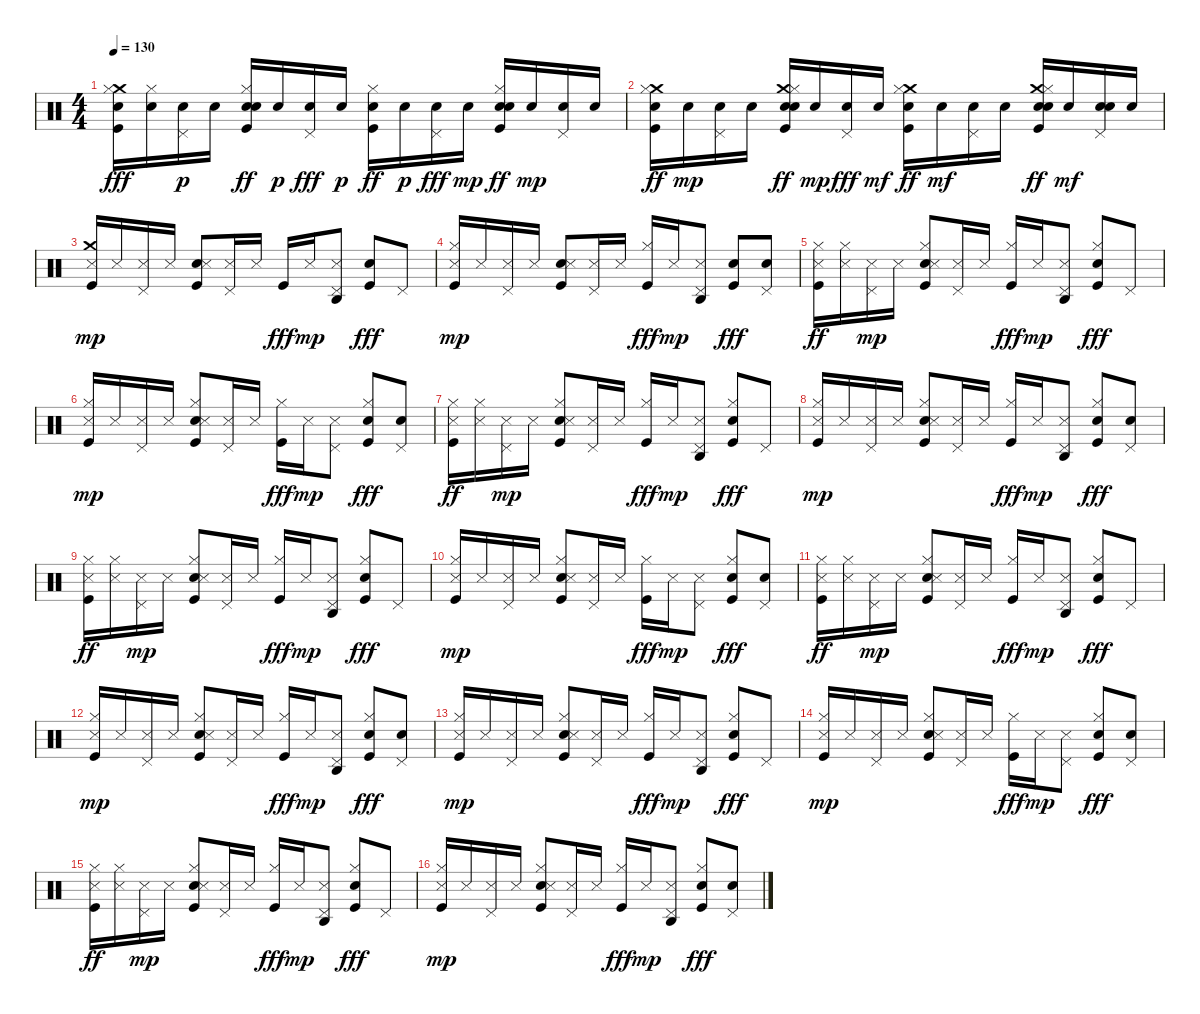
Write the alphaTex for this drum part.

\track "" {instrument percussion}
\staff {score}
\articulation defaults
\ts (4 4)
\tempo 130
\clef neutral
\ks c
("Kick (hit)" "Crash medium (hit)" "Electric Snare (hit)" "Hi-Hat (closed)").16{dy fff} ("Electric Snare (hit)" "Hi-Hat (closed)").16 ("Pedal Hi-Hat (hit)" "Electric Snare (hit)").16{dy p} "Electric Snare (hit)".16 ("Hand Clap (hit)" "Electric Snare (hit)" "Kick (hit)" "Hi-Hat (closed)").16{dy ff} "Electric Snare (hit)".16{dy p} ("Electric Snare (hit)" "Pedal Hi-Hat (hit)").16{dy fff} "Electric Snare (hit)".16{dy p} ("Electric Snare (hit)" "Kick (hit)" "Hi-Hat (closed)").16{dy ff} "Electric Snare (hit)".16{dy p} ("Electric Snare (hit)" "Pedal Hi-Hat (hit)").16{dy fff} "Electric Snare (hit)".16{dy mp} ("Hand Clap (hit)" "Kick (hit)" "Electric Snare (hit)" "Hi-Hat (closed)").16{dy ff} "Electric Snare (hit)".16{dy mp} ("Pedal Hi-Hat (hit)" "Electric Snare (hit)").16 "Electric Snare (hit)".16 |
("Crash medium (hit)" "Electric Snare (hit)" "Kick (hit)" "Hi-Hat (closed)").16{dy ff} "Electric Snare (hit)".16{dy mp} ("Pedal Hi-Hat (hit)" "Electric Snare (hit)").16 "Electric Snare (hit)".16 ("Hand Clap (hit)" "Electric Snare (hit)" "Crash medium (hit)" "Kick (hit)" "Hi-Hat (closed)").16{dy ff} "Electric Snare (hit)".16{dy mp} ("Electric Snare (hit)" "Pedal Hi-Hat (hit)").16{dy fff} "Electric Snare (hit)".16{dy mf} ("Kick (hit)" "Crash medium (hit)" "Electric Snare (hit)" "Hi-Hat (closed)").16{dy ff} "Electric Snare (hit)".16{dy mf} ("Pedal Hi-Hat (hit)" "Electric Snare (hit)").16 "Electric Snare (hit)".16 ("Hand Clap (hit)" "Kick (hit)" "Electric Snare (hit)" "Crash medium (hit)" "Hi-Hat (closed)").16{dy ff} "Electric Snare (hit)".16{dy mf} ("Hand Clap (hit)" "Pedal Hi-Hat (hit)" "Electric Snare (hit)").16 "Electric Snare (hit)".16 |
("Kick (hit)" "Crash medium (hit)" "Snare (side stick) 3").16{dy mp} "Snare (side stick) 3".16 ("Pedal Hi-Hat (hit)" "Snare (side stick) 3").16 "Snare (side stick) 3".16 ("Hand Clap (hit)" "Kick (hit)" "Snare (side stick) 3").8 ("Pedal Hi-Hat (hit)" "Snare (side stick) 3").16 "Snare (side stick) 3".16 "Kick (hit)".16{dy fff} "Snare (side stick) 3".16{dy mp} ("Pedal Hi-Hat (hit)" "Agogo high (hit)" "Snare (side stick) 3").8 ("Hand Clap (hit)" "Kick (hit)").8{dy fff} "Pedal Hi-Hat (hit)".8 |
("Kick (hit)" "Snare (side stick) 3" "Hi-Hat (closed)").16{dy mp} "Snare (side stick) 3".16 ("Pedal Hi-Hat (hit)" "Snare (side stick) 3").16 "Snare (side stick) 3".16 ("Hand Clap (hit)" "Kick (hit)" "Snare (side stick) 3").8 ("Pedal Hi-Hat (hit)" "Snare (side stick) 3").16 "Snare (side stick) 3".16 ("Kick (hit)" "Hi-Hat (closed)").16{dy fff} "Snare (side stick) 3".16{dy mp} ("Agogo high (hit)" "Pedal Hi-Hat (hit)" "Snare (side stick) 3").8 ("Hand Clap (hit)" "Kick (hit)").8{dy fff} ("Hand Clap (hit)" "Pedal Hi-Hat (hit)").8 |
("Kick (hit)" "Snare (side stick) 3" "Hi-Hat (closed)").16{dy ff} ("Snare (side stick) 3" "Hi-Hat (closed)").16 ("Pedal Hi-Hat (hit)" "Snare (side stick) 3").16{dy mp} "Snare (side stick) 3".16 ("Hand Clap (hit)" "Kick (hit)" "Snare (side stick) 3" "Hi-Hat (closed)").8 ("Pedal Hi-Hat (hit)" "Snare (side stick) 3").16 "Snare (side stick) 3".16 ("Kick (hit)" "Hi-Hat (closed)").16{dy fff} "Snare (side stick) 3".16{dy mp} ("Agogo high (hit)" "Pedal Hi-Hat (hit)" "Snare (side stick) 3").8 ("Hand Clap (hit)" "Kick (hit)" "Hi-Hat (closed)").8{dy fff} "Pedal Hi-Hat (hit)".8 |
("Kick (hit)" "Snare (side stick) 3" "Hi-Hat (closed)").16{dy mp} "Snare (side stick) 3".16 ("Pedal Hi-Hat (hit)" "Snare (side stick) 3").16 "Snare (side stick) 3".16 ("Hand Clap (hit)" "Kick (hit)" "Snare (side stick) 3" "Hi-Hat (closed)").8 ("Pedal Hi-Hat (hit)" "Snare (side stick) 3").16 "Snare (side stick) 3".16 ("Kick (hit)" "Hi-Hat (closed)").16{dy fff} "Snare (side stick) 3".16{dy mp} ("Pedal Hi-Hat (hit)" "Snare (side stick) 3").8 ("Hand Clap (hit)" "Kick (hit)" "Hi-Hat (closed)").8{dy fff} ("Hand Clap (hit)" "Pedal Hi-Hat (hit)").8 |
("Kick (hit)" "Snare (side stick) 3" "Hi-Hat (closed)").16{dy ff} ("Snare (side stick) 3" "Hi-Hat (closed)").16 ("Pedal Hi-Hat (hit)" "Snare (side stick) 3").16{dy mp} "Snare (side stick) 3".16 ("Hand Clap (hit)" "Kick (hit)" "Snare (side stick) 3" "Hi-Hat (closed)").8 ("Pedal Hi-Hat (hit)" "Snare (side stick) 3").16 "Snare (side stick) 3".16 ("Kick (hit)" "Hi-Hat (closed)").16{dy fff} "Snare (side stick) 3".16{dy mp} ("Agogo high (hit)" "Pedal Hi-Hat (hit)" "Snare (side stick) 3").8 ("Hand Clap (hit)" "Kick (hit)" "Hi-Hat (closed)").8{dy fff} "Pedal Hi-Hat (hit)".8 |
("Kick (hit)" "Snare (side stick) 3" "Hi-Hat (closed)").16{dy mp} "Snare (side stick) 3".16 ("Pedal Hi-Hat (hit)" "Snare (side stick) 3").16 "Snare (side stick) 3".16 ("Hand Clap (hit)" "Kick (hit)" "Snare (side stick) 3" "Hi-Hat (closed)").8 ("Pedal Hi-Hat (hit)" "Snare (side stick) 3").16 "Snare (side stick) 3".16 ("Kick (hit)" "Hi-Hat (closed)").16{dy fff} "Snare (side stick) 3".16{dy mp} ("Pedal Hi-Hat (hit)" "Agogo high (hit)" "Snare (side stick) 3").8 ("Hand Clap (hit)" "Kick (hit)" "Hi-Hat (closed)").8{dy fff} ("Hand Clap (hit)" "Pedal Hi-Hat (hit)").8 |
("Kick (hit)" "Snare (side stick) 3" "Hi-Hat (closed)").16{dy ff} ("Snare (side stick) 3" "Hi-Hat (closed)").16 ("Pedal Hi-Hat (hit)" "Snare (side stick) 3").16{dy mp} "Snare (side stick) 3".16 ("Hand Clap (hit)" "Kick (hit)" "Snare (side stick) 3" "Hi-Hat (closed)").8 ("Pedal Hi-Hat (hit)" "Snare (side stick) 3").16 "Snare (side stick) 3".16 ("Kick (hit)" "Hi-Hat (closed)").16{dy fff} "Snare (side stick) 3".16{dy mp} ("Agogo high (hit)" "Pedal Hi-Hat (hit)" "Snare (side stick) 3").8 ("Hand Clap (hit)" "Kick (hit)" "Hi-Hat (closed)").8{dy fff} "Pedal Hi-Hat (hit)".8 |
("Kick (hit)" "Snare (side stick) 3" "Hi-Hat (closed)").16{dy mp} "Snare (side stick) 3".16 ("Pedal Hi-Hat (hit)" "Snare (side stick) 3").16 "Snare (side stick) 3".16 ("Hand Clap (hit)" "Kick (hit)" "Snare (side stick) 3" "Hi-Hat (closed)").8 ("Pedal Hi-Hat (hit)" "Snare (side stick) 3").16 "Snare (side stick) 3".16 ("Kick (hit)" "Hi-Hat (closed)").16{dy fff} "Snare (side stick) 3".16{dy mp} ("Pedal Hi-Hat (hit)" "Snare (side stick) 3").8 ("Hand Clap (hit)" "Kick (hit)" "Hi-Hat (closed)").8{dy fff} ("Hand Clap (hit)" "Pedal Hi-Hat (hit)").8 |
("Kick (hit)" "Snare (side stick) 3" "Hi-Hat (closed)").16{dy ff} ("Snare (side stick) 3" "Hi-Hat (closed)").16 ("Pedal Hi-Hat (hit)" "Snare (side stick) 3").16{dy mp} "Snare (side stick) 3".16 ("Hand Clap (hit)" "Kick (hit)" "Snare (side stick) 3" "Hi-Hat (closed)").8 ("Pedal Hi-Hat (hit)" "Snare (side stick) 3").16 "Snare (side stick) 3".16 ("Kick (hit)" "Hi-Hat (closed)").16{dy fff} "Snare (side stick) 3".16{dy mp} ("Pedal Hi-Hat (hit)" "Agogo high (hit)" "Snare (side stick) 3").8 ("Hand Clap (hit)" "Kick (hit)" "Hi-Hat (closed)").8{dy fff} "Pedal Hi-Hat (hit)".8 |
("Kick (hit)" "Snare (side stick) 3" "Hi-Hat (closed)").16{dy mp} "Snare (side stick) 3".16 ("Pedal Hi-Hat (hit)" "Snare (side stick) 3").16 "Snare (side stick) 3".16 ("Hand Clap (hit)" "Kick (hit)" "Snare (side stick) 3" "Hi-Hat (closed)").8 ("Pedal Hi-Hat (hit)" "Snare (side stick) 3").16 "Snare (side stick) 3".16 ("Kick (hit)" "Hi-Hat (closed)").16{dy fff} "Snare (side stick) 3".16{dy mp} ("Pedal Hi-Hat (hit)" "Agogo high (hit)" "Snare (side stick) 3").8 ("Hand Clap (hit)" "Kick (hit)" "Hi-Hat (closed)").8{dy fff} ("Hand Clap (hit)" "Pedal Hi-Hat (hit)").8 |
("Kick (hit)" "Snare (side stick) 3" "Hi-Hat (closed)").16{dy mp} "Snare (side stick) 3".16 ("Pedal Hi-Hat (hit)" "Snare (side stick) 3").16 "Snare (side stick) 3".16 ("Hand Clap (hit)" "Kick (hit)" "Snare (side stick) 3" "Hi-Hat (closed)").8 ("Pedal Hi-Hat (hit)" "Snare (side stick) 3").16 "Snare (side stick) 3".16 ("Kick (hit)" "Hi-Hat (closed)").16{dy fff} "Snare (side stick) 3".16{dy mp} ("Agogo high (hit)" "Pedal Hi-Hat (hit)" "Snare (side stick) 3").8 ("Hand Clap (hit)" "Kick (hit)" "Hi-Hat (closed)").8{dy fff} "Pedal Hi-Hat (hit)".8 |
("Kick (hit)" "Snare (side stick) 3" "Hi-Hat (closed)").16{dy mp} "Snare (side stick) 3".16 ("Pedal Hi-Hat (hit)" "Snare (side stick) 3").16 "Snare (side stick) 3".16 ("Hand Clap (hit)" "Kick (hit)" "Snare (side stick) 3" "Hi-Hat (closed)").8 ("Pedal Hi-Hat (hit)" "Snare (side stick) 3").16 "Snare (side stick) 3".16 ("Kick (hit)" "Hi-Hat (closed)").16{dy fff} "Snare (side stick) 3".16{dy mp} ("Pedal Hi-Hat (hit)" "Snare (side stick) 3").8 ("Hand Clap (hit)" "Kick (hit)" "Hi-Hat (closed)").8{dy fff} ("Hand Clap (hit)" "Pedal Hi-Hat (hit)").8 |
("Kick (hit)" "Snare (side stick) 3" "Hi-Hat (closed)").16{dy ff} ("Snare (side stick) 3" "Hi-Hat (closed)").16 ("Pedal Hi-Hat (hit)" "Snare (side stick) 3").16{dy mp} "Snare (side stick) 3".16 ("Hand Clap (hit)" "Kick (hit)" "Snare (side stick) 3" "Hi-Hat (closed)").8 ("Pedal Hi-Hat (hit)" "Snare (side stick) 3").16 "Snare (side stick) 3".16 ("Kick (hit)" "Hi-Hat (closed)").16{dy fff} "Snare (side stick) 3".16{dy mp} ("Pedal Hi-Hat (hit)" "Agogo high (hit)" "Snare (side stick) 3").8 ("Hand Clap (hit)" "Kick (hit)" "Hi-Hat (closed)").8{dy fff} "Pedal Hi-Hat (hit)".8 |
("Kick (hit)" "Snare (side stick) 3" "Hi-Hat (closed)").16{dy mp} "Snare (side stick) 3".16 ("Pedal Hi-Hat (hit)" "Snare (side stick) 3").16 "Snare (side stick) 3".16 ("Hand Clap (hit)" "Kick (hit)" "Snare (side stick) 3" "Hi-Hat (closed)").8 ("Pedal Hi-Hat (hit)" "Snare (side stick) 3").16 "Snare (side stick) 3".16 ("Kick (hit)" "Hi-Hat (closed)").16{dy fff} "Snare (side stick) 3".16{dy mp} ("Pedal Hi-Hat (hit)" "Agogo high (hit)" "Snare (side stick) 3").8 ("Hand Clap (hit)" "Kick (hit)" "Hi-Hat (closed)").8{dy fff} ("Hand Clap (hit)" "Pedal Hi-Hat (hit)").8
